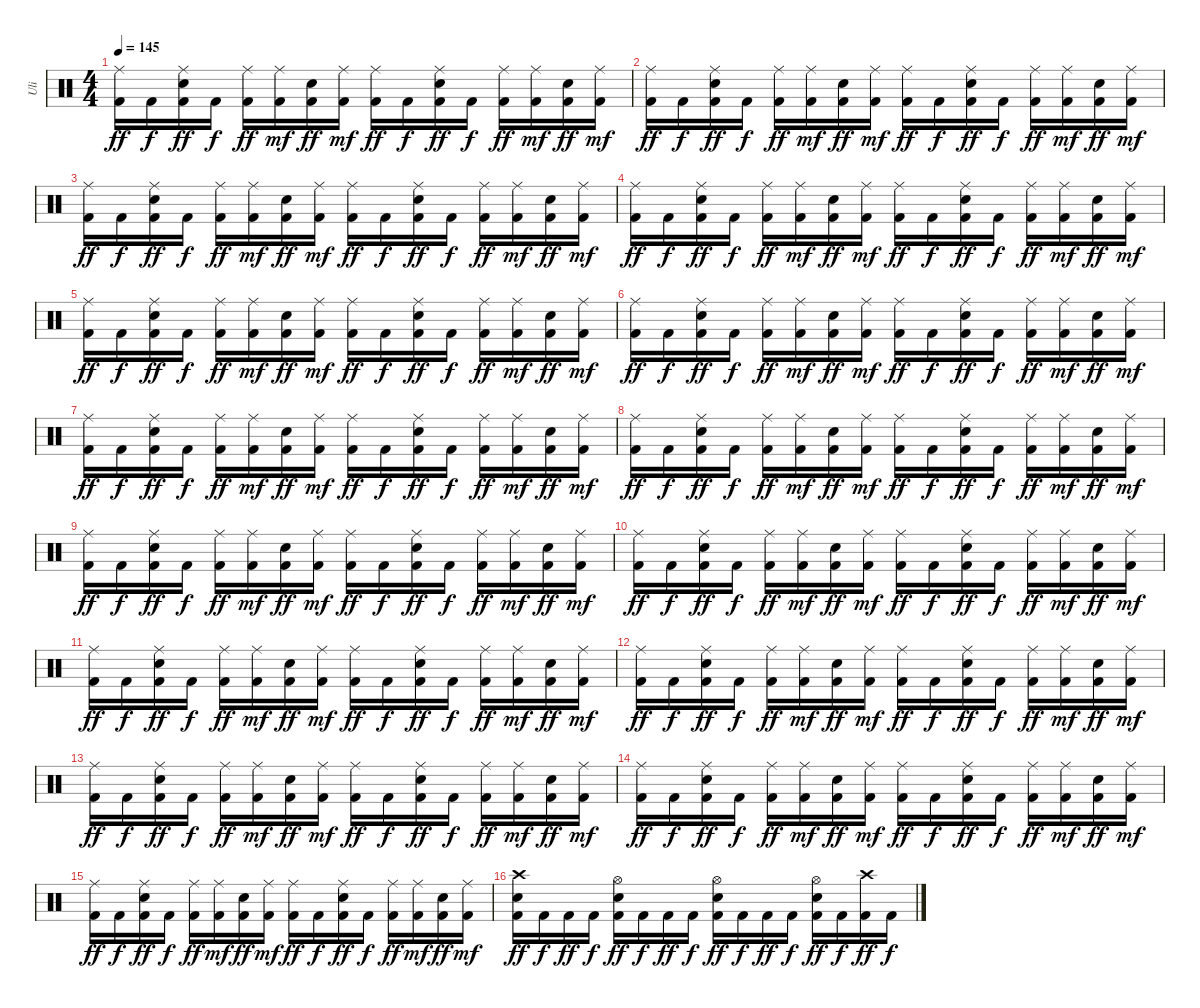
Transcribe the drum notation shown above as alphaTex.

\track ("Uli" "Uli") {instrument percussion}
\staff {score}
\articulation defaults
\ts (4 4)
\tempo 145
\clef neutral
\ks c
("Ride (middle)" "Kick (hit) 2").16{dy ff} "Kick (hit) 2".16{dy f} ("Ride (middle)" "Electric Snare (hit)" "Kick (hit) 2").16{dy ff} "Kick (hit) 2".16{dy f} ("Ride (middle)" "Kick (hit) 2").16{dy ff} ("Ride (middle)" "Kick (hit) 2").16{dy mf} ("Electric Snare (hit)" "Kick (hit) 2").16{dy ff} ("Ride (middle)" "Kick (hit) 2").16{dy mf} ("Ride (middle)" "Kick (hit) 2").16{dy ff} "Kick (hit) 2".16{dy f} ("Ride (middle)" "Electric Snare (hit)" "Kick (hit) 2").16{dy ff} "Kick (hit) 2".16{dy f} ("Ride (middle)" "Kick (hit) 2").16{dy ff} ("Ride (middle)" "Kick (hit) 2").16{dy mf} ("Electric Snare (hit)" "Kick (hit) 2").16{dy ff} ("Ride (middle)" "Kick (hit) 2").16{dy mf} |
("Ride (middle)" "Kick (hit) 2").16{dy ff} "Kick (hit) 2".16{dy f} ("Ride (middle)" "Electric Snare (hit)" "Kick (hit) 2").16{dy ff} "Kick (hit) 2".16{dy f} ("Ride (middle)" "Kick (hit) 2").16{dy ff} ("Ride (middle)" "Kick (hit) 2").16{dy mf} ("Electric Snare (hit)" "Kick (hit) 2").16{dy ff} ("Ride (middle)" "Kick (hit) 2").16{dy mf} ("Ride (middle)" "Kick (hit) 2").16{dy ff} "Kick (hit) 2".16{dy f} ("Ride (middle)" "Electric Snare (hit)" "Kick (hit) 2").16{dy ff} "Kick (hit) 2".16{dy f} ("Ride (middle)" "Kick (hit) 2").16{dy ff} ("Ride (middle)" "Kick (hit) 2").16{dy mf} ("Electric Snare (hit)" "Kick (hit) 2").16{dy ff} ("Ride (middle)" "Kick (hit) 2").16{dy mf} |
("Ride (middle)" "Kick (hit) 2").16{dy ff} "Kick (hit) 2".16{dy f} ("Ride (middle)" "Electric Snare (hit)" "Kick (hit) 2").16{dy ff} "Kick (hit) 2".16{dy f} ("Ride (middle)" "Kick (hit) 2").16{dy ff} ("Ride (middle)" "Kick (hit) 2").16{dy mf} ("Electric Snare (hit)" "Kick (hit) 2").16{dy ff} ("Ride (middle)" "Kick (hit) 2").16{dy mf} ("Ride (middle)" "Kick (hit) 2").16{dy ff} "Kick (hit) 2".16{dy f} ("Ride (middle)" "Electric Snare (hit)" "Kick (hit) 2").16{dy ff} "Kick (hit) 2".16{dy f} ("Ride (middle)" "Kick (hit) 2").16{dy ff} ("Ride (middle)" "Kick (hit) 2").16{dy mf} ("Electric Snare (hit)" "Kick (hit) 2").16{dy ff} ("Ride (middle)" "Kick (hit) 2").16{dy mf} |
("Ride (middle)" "Kick (hit) 2").16{dy ff} "Kick (hit) 2".16{dy f} ("Ride (middle)" "Electric Snare (hit)" "Kick (hit) 2").16{dy ff} "Kick (hit) 2".16{dy f} ("Ride (middle)" "Kick (hit) 2").16{dy ff} ("Ride (middle)" "Kick (hit) 2").16{dy mf} ("Electric Snare (hit)" "Kick (hit) 2").16{dy ff} ("Ride (middle)" "Kick (hit) 2").16{dy mf} ("Ride (middle)" "Kick (hit) 2").16{dy ff} "Kick (hit) 2".16{dy f} ("Ride (middle)" "Electric Snare (hit)" "Kick (hit) 2").16{dy ff} "Kick (hit) 2".16{dy f} ("Ride (middle)" "Kick (hit) 2").16{dy ff} ("Ride (middle)" "Kick (hit) 2").16{dy mf} ("Electric Snare (hit)" "Kick (hit) 2").16{dy ff} ("Ride (middle)" "Kick (hit) 2").16{dy mf} |
("Ride (middle)" "Kick (hit) 2").16{dy ff} "Kick (hit) 2".16{dy f} ("Ride (middle)" "Electric Snare (hit)" "Kick (hit) 2").16{dy ff} "Kick (hit) 2".16{dy f} ("Ride (middle)" "Kick (hit) 2").16{dy ff} ("Ride (middle)" "Kick (hit) 2").16{dy mf} ("Electric Snare (hit)" "Kick (hit) 2").16{dy ff} ("Ride (middle)" "Kick (hit) 2").16{dy mf} ("Ride (middle)" "Kick (hit) 2").16{dy ff} "Kick (hit) 2".16{dy f} ("Ride (middle)" "Electric Snare (hit)" "Kick (hit) 2").16{dy ff} "Kick (hit) 2".16{dy f} ("Ride (middle)" "Kick (hit) 2").16{dy ff} ("Ride (middle)" "Kick (hit) 2").16{dy mf} ("Electric Snare (hit)" "Kick (hit) 2").16{dy ff} ("Ride (middle)" "Kick (hit) 2").16{dy mf} |
("Ride (middle)" "Kick (hit) 2").16{dy ff} "Kick (hit) 2".16{dy f} ("Ride (middle)" "Electric Snare (hit)" "Kick (hit) 2").16{dy ff} "Kick (hit) 2".16{dy f} ("Ride (middle)" "Kick (hit) 2").16{dy ff} ("Ride (middle)" "Kick (hit) 2").16{dy mf} ("Electric Snare (hit)" "Kick (hit) 2").16{dy ff} ("Ride (middle)" "Kick (hit) 2").16{dy mf} ("Ride (middle)" "Kick (hit) 2").16{dy ff} "Kick (hit) 2".16{dy f} ("Ride (middle)" "Electric Snare (hit)" "Kick (hit) 2").16{dy ff} "Kick (hit) 2".16{dy f} ("Ride (middle)" "Kick (hit) 2").16{dy ff} ("Ride (middle)" "Kick (hit) 2").16{dy mf} ("Electric Snare (hit)" "Kick (hit) 2").16{dy ff} ("Ride (middle)" "Kick (hit) 2").16{dy mf} |
("Ride (middle)" "Kick (hit) 2").16{dy ff} "Kick (hit) 2".16{dy f} ("Ride (middle)" "Electric Snare (hit)" "Kick (hit) 2").16{dy ff} "Kick (hit) 2".16{dy f} ("Ride (middle)" "Kick (hit) 2").16{dy ff} ("Ride (middle)" "Kick (hit) 2").16{dy mf} ("Electric Snare (hit)" "Kick (hit) 2").16{dy ff} ("Ride (middle)" "Kick (hit) 2").16{dy mf} ("Ride (middle)" "Kick (hit) 2").16{dy ff} "Kick (hit) 2".16{dy f} ("Ride (middle)" "Electric Snare (hit)" "Kick (hit) 2").16{dy ff} "Kick (hit) 2".16{dy f} ("Ride (middle)" "Kick (hit) 2").16{dy ff} ("Ride (middle)" "Kick (hit) 2").16{dy mf} ("Electric Snare (hit)" "Kick (hit) 2").16{dy ff} ("Ride (middle)" "Kick (hit) 2").16{dy mf} |
("Ride (middle)" "Kick (hit) 2").16{dy ff} "Kick (hit) 2".16{dy f} ("Ride (middle)" "Electric Snare (hit)" "Kick (hit) 2").16{dy ff} "Kick (hit) 2".16{dy f} ("Ride (middle)" "Kick (hit) 2").16{dy ff} ("Ride (middle)" "Kick (hit) 2").16{dy mf} ("Electric Snare (hit)" "Kick (hit) 2").16{dy ff} ("Ride (middle)" "Kick (hit) 2").16{dy mf} ("Ride (middle)" "Kick (hit) 2").16{dy ff} "Kick (hit) 2".16{dy f} ("Ride (middle)" "Electric Snare (hit)" "Kick (hit) 2").16{dy ff} "Kick (hit) 2".16{dy f} ("Ride (middle)" "Kick (hit) 2").16{dy ff} ("Ride (middle)" "Kick (hit) 2").16{dy mf} ("Electric Snare (hit)" "Kick (hit) 2").16{dy ff} ("Ride (middle)" "Kick (hit) 2").16{dy mf} |
("Ride (middle)" "Kick (hit) 2").16{dy ff} "Kick (hit) 2".16{dy f} ("Ride (middle)" "Electric Snare (hit)" "Kick (hit) 2").16{dy ff} "Kick (hit) 2".16{dy f} ("Ride (middle)" "Kick (hit) 2").16{dy ff} ("Ride (middle)" "Kick (hit) 2").16{dy mf} ("Electric Snare (hit)" "Kick (hit) 2").16{dy ff} ("Ride (middle)" "Kick (hit) 2").16{dy mf} ("Ride (middle)" "Kick (hit) 2").16{dy ff} "Kick (hit) 2".16{dy f} ("Ride (middle)" "Electric Snare (hit)" "Kick (hit) 2").16{dy ff} "Kick (hit) 2".16{dy f} ("Ride (middle)" "Kick (hit) 2").16{dy ff} ("Ride (middle)" "Kick (hit) 2").16{dy mf} ("Electric Snare (hit)" "Kick (hit) 2").16{dy ff} ("Ride (middle)" "Kick (hit) 2").16{dy mf} |
("Ride (middle)" "Kick (hit) 2").16{dy ff} "Kick (hit) 2".16{dy f} ("Ride (middle)" "Electric Snare (hit)" "Kick (hit) 2").16{dy ff} "Kick (hit) 2".16{dy f} ("Ride (middle)" "Kick (hit) 2").16{dy ff} ("Ride (middle)" "Kick (hit) 2").16{dy mf} ("Electric Snare (hit)" "Kick (hit) 2").16{dy ff} ("Ride (middle)" "Kick (hit) 2").16{dy mf} ("Ride (middle)" "Kick (hit) 2").16{dy ff} "Kick (hit) 2".16{dy f} ("Ride (middle)" "Electric Snare (hit)" "Kick (hit) 2").16{dy ff} "Kick (hit) 2".16{dy f} ("Ride (middle)" "Kick (hit) 2").16{dy ff} ("Ride (middle)" "Kick (hit) 2").16{dy mf} ("Electric Snare (hit)" "Kick (hit) 2").16{dy ff} ("Ride (middle)" "Kick (hit) 2").16{dy mf} |
("Ride (middle)" "Kick (hit) 2").16{dy ff} "Kick (hit) 2".16{dy f} ("Ride (middle)" "Electric Snare (hit)" "Kick (hit) 2").16{dy ff} "Kick (hit) 2".16{dy f} ("Ride (middle)" "Kick (hit) 2").16{dy ff} ("Ride (middle)" "Kick (hit) 2").16{dy mf} ("Electric Snare (hit)" "Kick (hit) 2").16{dy ff} ("Ride (middle)" "Kick (hit) 2").16{dy mf} ("Ride (middle)" "Kick (hit) 2").16{dy ff} "Kick (hit) 2".16{dy f} ("Ride (middle)" "Electric Snare (hit)" "Kick (hit) 2").16{dy ff} "Kick (hit) 2".16{dy f} ("Ride (middle)" "Kick (hit) 2").16{dy ff} ("Ride (middle)" "Kick (hit) 2").16{dy mf} ("Electric Snare (hit)" "Kick (hit) 2").16{dy ff} ("Ride (middle)" "Kick (hit) 2").16{dy mf} |
("Ride (middle)" "Kick (hit) 2").16{dy ff} "Kick (hit) 2".16{dy f} ("Ride (middle)" "Electric Snare (hit)" "Kick (hit) 2").16{dy ff} "Kick (hit) 2".16{dy f} ("Ride (middle)" "Kick (hit) 2").16{dy ff} ("Ride (middle)" "Kick (hit) 2").16{dy mf} ("Electric Snare (hit)" "Kick (hit) 2").16{dy ff} ("Ride (middle)" "Kick (hit) 2").16{dy mf} ("Ride (middle)" "Kick (hit) 2").16{dy ff} "Kick (hit) 2".16{dy f} ("Ride (middle)" "Electric Snare (hit)" "Kick (hit) 2").16{dy ff} "Kick (hit) 2".16{dy f} ("Ride (middle)" "Kick (hit) 2").16{dy ff} ("Ride (middle)" "Kick (hit) 2").16{dy mf} ("Electric Snare (hit)" "Kick (hit) 2").16{dy ff} ("Ride (middle)" "Kick (hit) 2").16{dy mf} |
("Ride (middle)" "Kick (hit) 2").16{dy ff} "Kick (hit) 2".16{dy f} ("Ride (middle)" "Electric Snare (hit)" "Kick (hit) 2").16{dy ff} "Kick (hit) 2".16{dy f} ("Ride (middle)" "Kick (hit) 2").16{dy ff} ("Ride (middle)" "Kick (hit) 2").16{dy mf} ("Electric Snare (hit)" "Kick (hit) 2").16{dy ff} ("Ride (middle)" "Kick (hit) 2").16{dy mf} ("Ride (middle)" "Kick (hit) 2").16{dy ff} "Kick (hit) 2".16{dy f} ("Ride (middle)" "Electric Snare (hit)" "Kick (hit) 2").16{dy ff} "Kick (hit) 2".16{dy f} ("Ride (middle)" "Kick (hit) 2").16{dy ff} ("Ride (middle)" "Kick (hit) 2").16{dy mf} ("Electric Snare (hit)" "Kick (hit) 2").16{dy ff} ("Ride (middle)" "Kick (hit) 2").16{dy mf} |
("Ride (middle)" "Kick (hit) 2").16{dy ff} "Kick (hit) 2".16{dy f} ("Ride (middle)" "Electric Snare (hit)" "Kick (hit) 2").16{dy ff} "Kick (hit) 2".16{dy f} ("Ride (middle)" "Kick (hit) 2").16{dy ff} ("Ride (middle)" "Kick (hit) 2").16{dy mf} ("Electric Snare (hit)" "Kick (hit) 2").16{dy ff} ("Ride (middle)" "Kick (hit) 2").16{dy mf} ("Ride (middle)" "Kick (hit) 2").16{dy ff} "Kick (hit) 2".16{dy f} ("Ride (middle)" "Electric Snare (hit)" "Kick (hit) 2").16{dy ff} "Kick (hit) 2".16{dy f} ("Ride (middle)" "Kick (hit) 2").16{dy ff} ("Ride (middle)" "Kick (hit) 2").16{dy mf} ("Electric Snare (hit)" "Kick (hit) 2").16{dy ff} ("Ride (middle)" "Kick (hit) 2").16{dy mf} |
("Ride (middle)" "Kick (hit) 2").16{dy ff} "Kick (hit) 2".16{dy f} ("Ride (middle)" "Electric Snare (hit)" "Kick (hit) 2").16{dy ff} "Kick (hit) 2".16{dy f} ("Ride (middle)" "Kick (hit) 2").16{dy ff} ("Ride (middle)" "Kick (hit) 2").16{dy mf} ("Electric Snare (hit)" "Kick (hit) 2").16{dy ff} ("Ride (middle)" "Kick (hit) 2").16{dy mf} ("Ride (middle)" "Kick (hit) 2").16{dy ff} "Kick (hit) 2".16{dy f} ("Ride (middle)" "Electric Snare (hit)" "Kick (hit) 2").16{dy ff} "Kick (hit) 2".16{dy f} ("Ride (middle)" "Kick (hit) 2").16{dy ff} ("Ride (middle)" "Kick (hit) 2").16{dy mf} ("Electric Snare (hit)" "Kick (hit) 2").16{dy ff} ("Ride (middle)" "Kick (hit) 2").16{dy mf} |
("Crash high (hit)" "Electric Snare (hit)" "Kick (hit) 2").16{dy ff} "Kick (hit) 2".16{dy f} "Kick (hit) 2".16{dy ff} "Kick (hit) 2".16{dy f} ("Hi-Hat (open)" "Electric Snare (hit)" "Kick (hit) 2").16{dy ff} "Kick (hit) 2".16{dy f} "Kick (hit) 2".16{dy ff} "Kick (hit) 2".16{dy f} ("Hi-Hat (open)" "Electric Snare (hit)" "Kick (hit) 2").16{dy ff} "Kick (hit) 2".16{dy f} "Kick (hit) 2".16{dy ff} "Kick (hit) 2".16{dy f} ("Hi-Hat (open)" "Electric Snare (hit)" "Kick (hit) 2").16{dy ff} "Kick (hit) 2".16{dy f} ("Crash high (hit)" "Kick (hit) 2").16{dy ff} "Kick (hit) 2".16{dy f}
